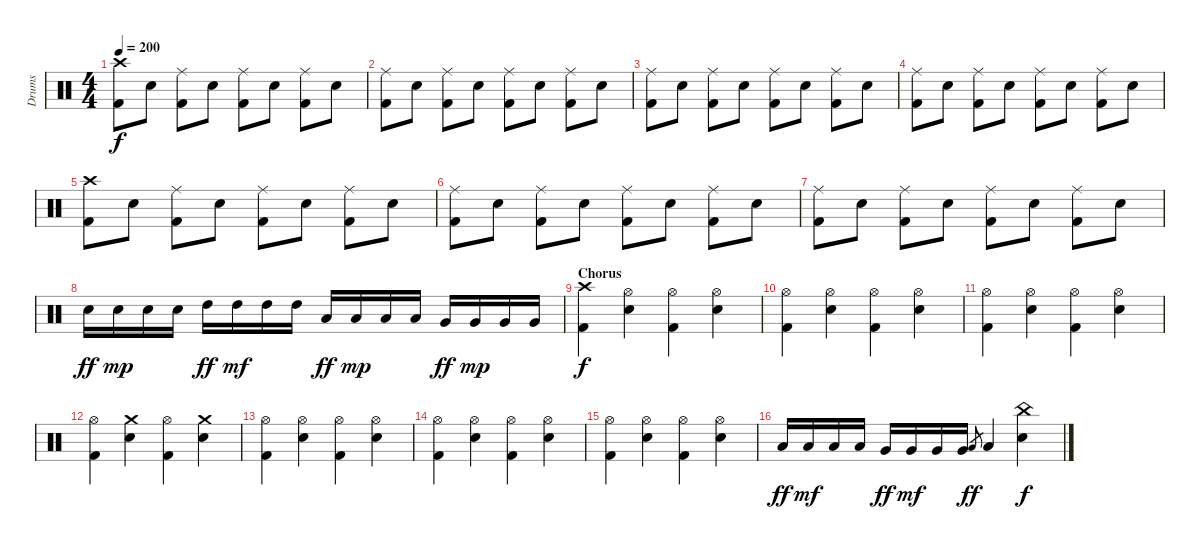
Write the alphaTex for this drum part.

\track ("Drums" "Drums") {instrument percussion}
\staff {score}
\articulation defaults
\ts (4 4)
\tempo 200
\clef neutral
\ks c
("Crash high (hit)" "Kick (hit) 2").8{dy f} "Electric Snare (hit)".8 ("Ride (middle)" "Kick (hit) 2").8 "Electric Snare (hit)".8 ("Ride (middle)" "Kick (hit) 2").8 "Electric Snare (hit)".8 ("Ride (middle)" "Kick (hit) 2").8 "Electric Snare (hit)".8 |
("Ride (middle)" "Kick (hit) 2").8 "Electric Snare (hit)".8 ("Ride (middle)" "Kick (hit) 2").8 "Electric Snare (hit)".8 ("Ride (middle)" "Kick (hit) 2").8 "Electric Snare (hit)".8 ("Ride (middle)" "Kick (hit) 2").8 "Electric Snare (hit)".8 |
("Ride (middle)" "Kick (hit) 2").8 "Electric Snare (hit)".8 ("Ride (middle)" "Kick (hit) 2").8 "Electric Snare (hit)".8 ("Ride (middle)" "Kick (hit) 2").8 "Electric Snare (hit)".8 ("Ride (middle)" "Kick (hit) 2").8 "Electric Snare (hit)".8 |
("Ride (middle)" "Kick (hit) 2").8 "Electric Snare (hit)".8 ("Ride (middle)" "Kick (hit) 2").8 "Electric Snare (hit)".8 ("Ride (middle)" "Kick (hit) 2").8 "Electric Snare (hit)".8 ("Ride (middle)" "Kick (hit) 2").8 "Electric Snare (hit)".8 |
("Crash high (hit)" "Kick (hit) 2").8 "Electric Snare (hit)".8 ("Ride (middle)" "Kick (hit) 2").8 "Electric Snare (hit)".8 ("Ride (middle)" "Kick (hit) 2").8 "Electric Snare (hit)".8 ("Ride (middle)" "Kick (hit) 2").8 "Electric Snare (hit)".8 |
("Ride (middle)" "Kick (hit) 2").8 "Electric Snare (hit)".8 ("Ride (middle)" "Kick (hit) 2").8 "Electric Snare (hit)".8 ("Ride (middle)" "Kick (hit) 2").8 "Electric Snare (hit)".8 ("Ride (middle)" "Kick (hit) 2").8 "Electric Snare (hit)".8 |
("Ride (middle)" "Kick (hit) 2").8 "Electric Snare (hit)".8 ("Ride (middle)" "Kick (hit) 2").8 "Electric Snare (hit)".8 ("Ride (middle)" "Kick (hit) 2").8 "Electric Snare (hit)".8 ("Ride (middle)" "Kick (hit) 2").8 "Electric Snare (hit)".8 |
"Electric Snare (hit)".16{dy ff} "Electric Snare (hit)".16{dy mp} "Electric Snare (hit)".16 "Electric Snare (hit)".16 "High Tom (hit)".16{dy ff} "High Tom (hit)".16{dy mf} "High Tom (hit)".16 "High Tom (hit)".16 "Low Tom (hit)".16{dy ff} "Low Tom (hit)".16{dy mp} "Low Tom (hit)".16 "Low Tom (hit)".16 "Very Low Tom (hit)".16{dy ff} "Very Low Tom (hit)".16{dy mp} "Very Low Tom (hit)".16 "Very Low Tom (hit)".16 |
\section ("" "Chorus")
("Crash high (hit)" "Kick (hit) 2").4{dy f} ("Hi-Hat (open)" "Electric Snare (hit)").4 ("Hi-Hat (open)" "Kick (hit) 2").4 ("Hi-Hat (open)" "Electric Snare (hit)").4 |
("Hi-Hat (open)" "Kick (hit) 2").4 ("Hi-Hat (open)" "Electric Snare (hit)").4 ("Hi-Hat (open)" "Kick (hit) 2").4 ("Hi-Hat (open)" "Electric Snare (hit)").4 |
("Hi-Hat (open)" "Kick (hit) 2").4 ("Hi-Hat (open)" "Electric Snare (hit)").4 ("Hi-Hat (open)" "Kick (hit) 2").4 ("Hi-Hat (open)" "Electric Snare (hit)").4 |
("Hi-Hat (open)" "Kick (hit) 2").4 ("Crash medium (hit)" "Electric Snare (hit)").4 ("Hi-Hat (open)" "Kick (hit) 2").4 ("Crash medium (hit)" "Electric Snare (hit)").4 |
("Hi-Hat (open)" "Kick (hit) 2").4 ("Hi-Hat (open)" "Electric Snare (hit)").4 ("Hi-Hat (open)" "Kick (hit) 2").4 ("Hi-Hat (open)" "Electric Snare (hit)").4 |
("Hi-Hat (open)" "Kick (hit) 2").4 ("Hi-Hat (open)" "Electric Snare (hit)").4 ("Hi-Hat (open)" "Kick (hit) 2").4 ("Hi-Hat (open)" "Electric Snare (hit)").4 |
("Hi-Hat (open)" "Kick (hit) 2").4 ("Hi-Hat (open)" "Electric Snare (hit)").4 ("Hi-Hat (open)" "Kick (hit) 2").4 ("Hi-Hat (open)" "Electric Snare (hit)").4 |
"Low Tom (hit)".16{dy ff} "Low Tom (hit)".16{dy mf} "Low Tom (hit)".16 "Low Tom (hit)".16 "Very Low Tom (hit)".16{dy ff} "Very Low Tom (hit)".16{dy mf} "Very Low Tom (hit)".16 "Very Low Tom (hit)".16 "Low Floor Tom (hit)".8{gr dy ff} "Low Floor Tom (hit)".4 ("China (hit)" "Electric Snare (hit)").4{dy f}
